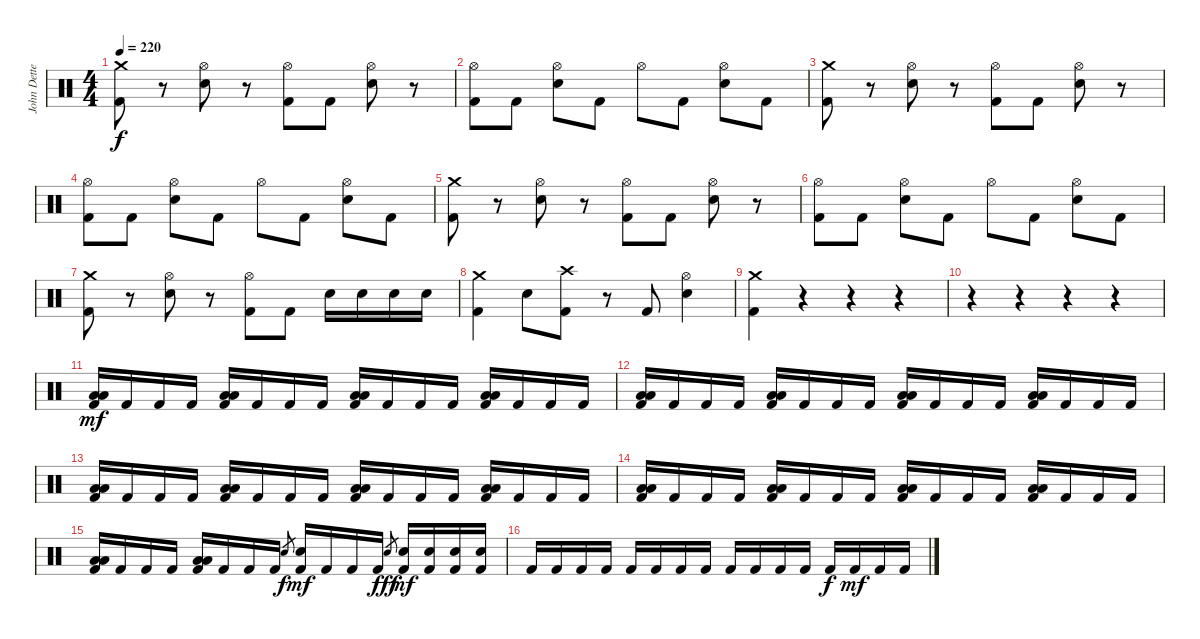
\track ("John Dette" "John Dette") {instrument percussion}
\staff {score}
\articulation defaults
\ts (4 4)
\tempo 220
\clef neutral
\ks c
("Crash medium (hit)" "Kick (hit) 2").8{dy f} r.8 ("Hi-Hat (open)" "Snare (hit) 2").8 r.8 ("Hi-Hat (open)" "Kick (hit) 2").8 "Kick (hit) 2".8 ("Hi-Hat (open)" "Snare (hit) 2").8 r.8 |
("Hi-Hat (open)" "Kick (hit) 2").8 "Kick (hit) 2".8 ("Hi-Hat (open)" "Snare (hit) 2").8 "Kick (hit) 2".8 "Hi-Hat (open)".8 "Kick (hit) 2".8 ("Hi-Hat (open)" "Snare (hit) 2").8 "Kick (hit) 2".8 |
("Crash medium (hit)" "Kick (hit) 2").8 r.8 ("Hi-Hat (open)" "Snare (hit) 2").8 r.8 ("Hi-Hat (open)" "Kick (hit) 2").8 "Kick (hit) 2".8 ("Hi-Hat (open)" "Snare (hit) 2").8 r.8 |
("Hi-Hat (open)" "Kick (hit) 2").8 "Kick (hit) 2".8 ("Hi-Hat (open)" "Snare (hit) 2").8 "Kick (hit) 2".8 "Hi-Hat (open)".8 "Kick (hit) 2".8 ("Hi-Hat (open)" "Snare (hit) 2").8 "Kick (hit) 2".8 |
("Crash medium (hit)" "Kick (hit) 2").8 r.8 ("Hi-Hat (open)" "Snare (hit) 2").8 r.8 ("Hi-Hat (open)" "Kick (hit) 2").8 "Kick (hit) 2".8 ("Hi-Hat (open)" "Snare (hit) 2").8 r.8 |
("Hi-Hat (open)" "Kick (hit) 2").8 "Kick (hit) 2".8 ("Hi-Hat (open)" "Snare (hit) 2").8 "Kick (hit) 2".8 "Hi-Hat (open)".8 "Kick (hit) 2".8 ("Hi-Hat (open)" "Snare (hit) 2").8 "Kick (hit) 2".8 |
("Crash medium (hit)" "Kick (hit) 2").8 r.8 ("Hi-Hat (open)" "Snare (hit) 2").8 r.8 ("Hi-Hat (open)" "Kick (hit) 2").8 "Kick (hit) 2".8 "Snare (hit) 2".16 "Snare (hit) 2".16 "Snare (hit) 2".16 "Snare (hit) 2".16 |
("Crash medium (hit)" "Kick (hit) 2").4 "Snare (hit) 2".8 ("Crash high (hit)" "Kick (hit) 2").8 r.8 "Kick (hit) 2".8 ("Hi-Hat (open)" "Snare (hit) 2").4 |
("Crash medium (hit)" "Kick (hit) 2").4 r.4 r.4 r.4 |
r.4 r.4 r.4 r.4 |
("Low Floor Tom (hit)" "Low Floor Tom (hit)" "Kick (hit) 2").16{dy mf} "Kick (hit) 2".16 "Kick (hit) 2".16 "Kick (hit) 2".16 ("Low Floor Tom (hit)" "Low Floor Tom (hit)" "Kick (hit) 2").16 "Kick (hit) 2".16 "Kick (hit) 2".16 "Kick (hit) 2".16 ("Low Floor Tom (hit)" "Low Floor Tom (hit)" "Kick (hit) 2").16 "Kick (hit) 2".16 "Kick (hit) 2".16 "Kick (hit) 2".16 ("Low Floor Tom (hit)" "Low Floor Tom (hit)" "Kick (hit) 2").16 "Kick (hit) 2".16 "Kick (hit) 2".16 "Kick (hit) 2".16 |
("Low Floor Tom (hit)" "Low Floor Tom (hit)" "Kick (hit) 2").16 "Kick (hit) 2".16 "Kick (hit) 2".16 "Kick (hit) 2".16 ("Low Floor Tom (hit)" "Low Floor Tom (hit)" "Kick (hit) 2").16 "Kick (hit) 2".16 "Kick (hit) 2".16 "Kick (hit) 2".16 ("Low Floor Tom (hit)" "Low Floor Tom (hit)" "Kick (hit) 2").16 "Kick (hit) 2".16 "Kick (hit) 2".16 "Kick (hit) 2".16 ("Low Floor Tom (hit)" "Low Floor Tom (hit)" "Kick (hit) 2").16 "Kick (hit) 2".16 "Kick (hit) 2".16 "Kick (hit) 2".16 |
("Low Floor Tom (hit)" "Low Floor Tom (hit)" "Kick (hit) 2").16 "Kick (hit) 2".16 "Kick (hit) 2".16 "Kick (hit) 2".16 ("Low Floor Tom (hit)" "Low Floor Tom (hit)" "Kick (hit) 2").16 "Kick (hit) 2".16 "Kick (hit) 2".16 "Kick (hit) 2".16 ("Low Floor Tom (hit)" "Low Floor Tom (hit)" "Kick (hit) 2").16 "Kick (hit) 2".16 "Kick (hit) 2".16 "Kick (hit) 2".16 ("Low Floor Tom (hit)" "Low Floor Tom (hit)" "Kick (hit) 2").16 "Kick (hit) 2".16 "Kick (hit) 2".16 "Kick (hit) 2".16 |
("Low Floor Tom (hit)" "Low Floor Tom (hit)" "Kick (hit) 2").16 "Kick (hit) 2".16 "Kick (hit) 2".16 "Kick (hit) 2".16 ("Low Floor Tom (hit)" "Low Floor Tom (hit)" "Kick (hit) 2").16 "Kick (hit) 2".16 "Kick (hit) 2".16 "Kick (hit) 2".16 ("Low Floor Tom (hit)" "Low Floor Tom (hit)" "Kick (hit) 2").16 "Kick (hit) 2".16 "Kick (hit) 2".16 "Kick (hit) 2".16 ("Low Floor Tom (hit)" "Low Floor Tom (hit)" "Kick (hit) 2").16 "Kick (hit) 2".16 "Kick (hit) 2".16 "Kick (hit) 2".16 |
("Low Floor Tom (hit)" "Low Floor Tom (hit)" "Kick (hit) 2").16 "Kick (hit) 2".16 "Kick (hit) 2".16 "Kick (hit) 2".16 ("Low Floor Tom (hit)" "Low Floor Tom (hit)" "Kick (hit) 2").16 "Kick (hit) 2".16 "Kick (hit) 2".16 "Kick (hit) 2".16 "Snare (hit) 2".8{gr dy f} ("Snare (hit) 2" "Kick (hit) 2").16{dy mf} "Kick (hit) 2".16 "Kick (hit) 2".16 "Kick (hit) 2".16 "Snare (hit) 2".8{gr dy fff} ("Snare (hit) 2" "Kick (hit) 2").16{dy mf} ("Snare (hit) 2" "Kick (hit) 2").16 ("Snare (hit) 2" "Kick (hit) 2").16 ("Snare (hit) 2" "Kick (hit) 2").16 |
"Kick (hit) 2".16 "Kick (hit) 2".16 "Kick (hit) 2".16 "Kick (hit) 2".16 "Kick (hit) 2".16 "Kick (hit) 2".16 "Kick (hit) 2".16 "Kick (hit) 2".16 "Kick (hit) 2".16 "Kick (hit) 2".16 "Kick (hit) 2".16 "Kick (hit) 2".16 "Kick (hit) 2".16{dy f} "Kick (hit) 2".16{dy mf} "Kick (hit) 2".16 "Kick (hit) 2".16
